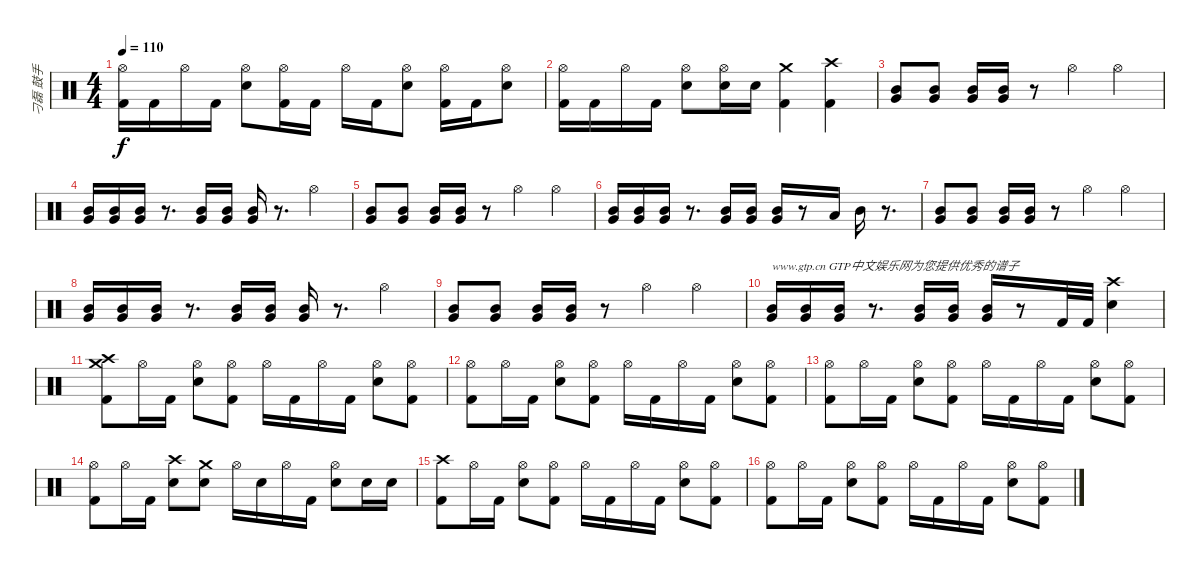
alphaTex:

\track ("刁磊 鼓手" "刁磊 鼓手") {instrument percussion}
\staff {score}
\articulation defaults
\ts (4 4)
\tempo 110
\clef neutral
\ks c
("Hi-Hat (open)" "Kick (hit) 2").16{dy f} "Kick (hit) 2".16 "Hi-Hat (open)".16 "Kick (hit) 2".16 ("Hi-Hat (open)" "Snare (hit) 2").8 ("Hi-Hat (open)" "Kick (hit) 2").16 "Kick (hit) 2".16 "Hi-Hat (open)".16 "Kick (hit) 2".16 ("Hi-Hat (open)" "Snare (hit) 2").8 ("Hi-Hat (open)" "Kick (hit) 2").16 "Kick (hit) 2".16 ("Hi-Hat (open)" "Snare (hit) 2").8 |
("Hi-Hat (open)" "Kick (hit) 2").16 "Kick (hit) 2".16 "Hi-Hat (open)".16 "Kick (hit) 2".16 ("Hi-Hat (open)" "Snare (hit) 2").8 ("Hi-Hat (open)" "Snare (hit) 2").16 "Snare (hit) 2".16 ("Crash medium (hit)" "Kick (hit) 2").4 ("Crash high (hit)" "Kick (hit) 2").4 |
("Mid Tom (hit)" "Very Low Tom (hit)").8 ("Mid Tom (hit)" "Very Low Tom (hit)").8 ("Mid Tom (hit)" "Very Low Tom (hit)").16 ("Mid Tom (hit)" "Very Low Tom (hit)").16 r.8 "Hi-Hat (open)".4 "Hi-Hat (open)".4 |
("Very Low Tom (hit)" "Mid Tom (hit)").16 ("Very Low Tom (hit)" "Mid Tom (hit)").16 ("Very Low Tom (hit)" "Mid Tom (hit)").16 r.8{d} ("Very Low Tom (hit)" "Mid Tom (hit)").16 ("Very Low Tom (hit)" "Mid Tom (hit)").16 ("Very Low Tom (hit)" "Mid Tom (hit)").16 r.8{d} "Hi-Hat (open)".4 |
("Mid Tom (hit)" "Very Low Tom (hit)").8 ("Mid Tom (hit)" "Very Low Tom (hit)").8 ("Mid Tom (hit)" "Very Low Tom (hit)").16 ("Mid Tom (hit)" "Very Low Tom (hit)").16 r.8 "Hi-Hat (open)".4 "Hi-Hat (open)".4 |
("Very Low Tom (hit)" "Mid Tom (hit)").16 ("Very Low Tom (hit)" "Mid Tom (hit)").16 ("Very Low Tom (hit)" "Mid Tom (hit)").16 r.8{d} ("Very Low Tom (hit)" "Mid Tom (hit)").16 ("Very Low Tom (hit)" "Mid Tom (hit)").16 ("Very Low Tom (hit)" "Mid Tom (hit)").16 r.8 "Low Tom (hit)".16 "Mid Tom (hit)".16 r.8{d} |
("Mid Tom (hit)" "Very Low Tom (hit)").8 ("Mid Tom (hit)" "Very Low Tom (hit)").8 ("Mid Tom (hit)" "Very Low Tom (hit)").16 ("Mid Tom (hit)" "Very Low Tom (hit)").16 r.8 "Hi-Hat (open)".4 "Hi-Hat (open)".4 |
("Very Low Tom (hit)" "Mid Tom (hit)").16 ("Very Low Tom (hit)" "Mid Tom (hit)").16 ("Very Low Tom (hit)" "Mid Tom (hit)").16 r.8{d} ("Very Low Tom (hit)" "Mid Tom (hit)").16 ("Very Low Tom (hit)" "Mid Tom (hit)").16 ("Very Low Tom (hit)" "Mid Tom (hit)").16 r.8{d} "Hi-Hat (open)".4 |
("Mid Tom (hit)" "Very Low Tom (hit)").8 ("Mid Tom (hit)" "Very Low Tom (hit)").8 ("Mid Tom (hit)" "Very Low Tom (hit)").16 ("Mid Tom (hit)" "Very Low Tom (hit)").16 r.8 "Hi-Hat (open)".4 "Hi-Hat (open)".4 |
("Very Low Tom (hit)" "Mid Tom (hit)").16{txt "www.gtp.cn GTP中文娱乐网为您提供优秀的谱子"} ("Very Low Tom (hit)" "Mid Tom (hit)").16 ("Very Low Tom (hit)" "Mid Tom (hit)").16 r.8{d} ("Very Low Tom (hit)" "Mid Tom (hit)").16 ("Very Low Tom (hit)" "Mid Tom (hit)").16 ("Very Low Tom (hit)" "Mid Tom (hit)").16 r.8 "Kick (hit) 2".32 "Kick (hit) 2".32 ("Crash high (hit)" "Snare (hit) 2").4 |
("Crash high (hit)" "Crash medium (hit)" "Kick (hit) 2").8 "Hi-Hat (open)".16 "Kick (hit) 2".16 ("Hi-Hat (open)" "Snare (hit) 2").8 ("Hi-Hat (open)" "Kick (hit) 2").8 "Hi-Hat (open)".16 "Kick (hit) 2".16 "Hi-Hat (open)".16 "Kick (hit) 2".16 ("Hi-Hat (open)" "Snare (hit) 2").8 ("Hi-Hat (open)" "Kick (hit) 2").8 |
("Hi-Hat (open)" "Kick (hit) 2").8 "Hi-Hat (open)".16 "Kick (hit) 2".16 ("Hi-Hat (open)" "Snare (hit) 2").8 ("Hi-Hat (open)" "Kick (hit) 2").8 "Hi-Hat (open)".16 "Kick (hit) 2".16 "Hi-Hat (open)".16 "Kick (hit) 2".16 ("Hi-Hat (open)" "Snare (hit) 2").8 ("Hi-Hat (open)" "Kick (hit) 2").8 |
("Hi-Hat (open)" "Kick (hit) 2").8 "Hi-Hat (open)".16 "Kick (hit) 2".16 ("Hi-Hat (open)" "Snare (hit) 2").8 ("Hi-Hat (open)" "Kick (hit) 2").8 "Hi-Hat (open)".16 "Kick (hit) 2".16 "Hi-Hat (open)".16 "Kick (hit) 2".16 ("Hi-Hat (open)" "Snare (hit) 2").8 ("Hi-Hat (open)" "Kick (hit) 2").8 |
("Hi-Hat (open)" "Kick (hit) 2").8 "Hi-Hat (open)".16 "Kick (hit) 2".16 ("Crash high (hit)" "Snare (hit) 2").8 ("Crash medium (hit)" "Snare (hit) 2").8 "Hi-Hat (open)".16 "Snare (hit) 2".16 "Hi-Hat (open)".16 "Kick (hit) 2".16 ("Hi-Hat (open)" "Snare (hit) 2").8 "Snare (hit) 2".16 "Snare (hit) 2".16 |
("Crash high (hit)" "Kick (hit) 2").8 "Hi-Hat (open)".16 "Kick (hit) 2".16 ("Hi-Hat (open)" "Snare (hit) 2").8 ("Hi-Hat (open)" "Kick (hit) 2").8 "Hi-Hat (open)".16 "Kick (hit) 2".16 "Hi-Hat (open)".16 "Kick (hit) 2".16 ("Hi-Hat (open)" "Snare (hit) 2").8 ("Hi-Hat (open)" "Kick (hit) 2").8 |
("Hi-Hat (open)" "Kick (hit) 2").8 "Hi-Hat (open)".16 "Kick (hit) 2".16 ("Hi-Hat (open)" "Snare (hit) 2").8 ("Hi-Hat (open)" "Kick (hit) 2").8 "Hi-Hat (open)".16 "Kick (hit) 2".16 "Hi-Hat (open)".16 "Kick (hit) 2".16 ("Hi-Hat (open)" "Snare (hit) 2").8 ("Hi-Hat (open)" "Kick (hit) 2").8
